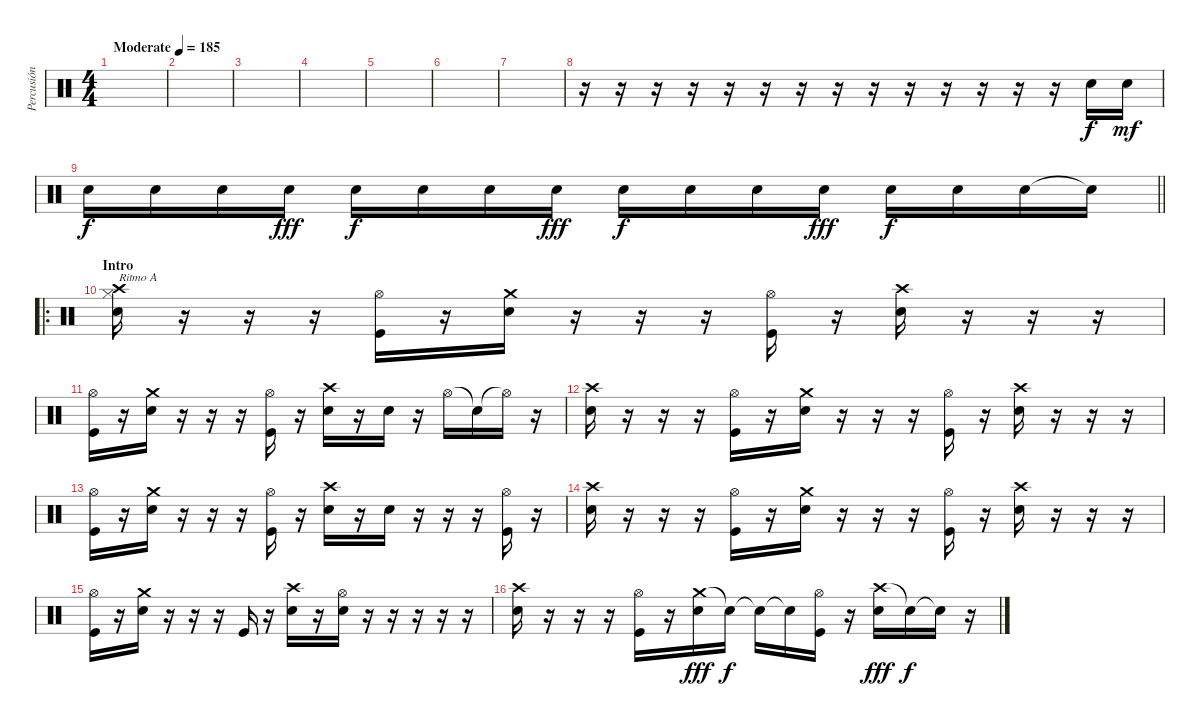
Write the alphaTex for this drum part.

\track ("Percusión" "Percusión") {instrument percussion}
\staff {score}
\articulation defaults
\ts (4 4)
\tempo (185 "Moderate")
\clef neutral
\ks c
|
|
|
|
|
|
|
r.16 r.16 r.16 r.16 r.16 r.16 r.16 r.16 r.16 r.16 r.16 r.16 r.16 r.16 "Snare (hit) 2".16 "Snare (hit) 2".16{dy mf} |
\barLineRight lightlight "Electric Snare (hit)".16{dy f} "Electric Snare (hit)".16 "Electric Snare (hit)".16 "Electric Snare (hit)".16{dy fff} "Electric Snare (hit)".16{dy f} "Electric Snare (hit)".16 "Electric Snare (hit)".16 "Electric Snare (hit)".16{dy fff} "Electric Snare (hit)".16{dy f} "Electric Snare (hit)".16 "Electric Snare (hit)".16 "Electric Snare (hit)".16{dy fff} "Electric Snare (hit)".16{dy f} "Electric Snare (hit)".16 "Electric Snare (hit)".16 "Snare (hit) 2"{t}.16
|
\ro
\section ("" "Intro")
("Crash high (hit)" "Electric Snare (hit)" "Hi-Hat (closed)").16{txt "Ritmo A"} r.16 r.16 r.16 ("Hi-Hat (open)" "Kick (hit)").16 r.16 ("Crash medium (hit)" "Electric Snare (hit)").16 r.16 r.16 r.16 ("Hi-Hat (open)" "Kick (hit)").16 r.16 ("Crash high (hit)" "Electric Snare (hit)").16 r.16 r.16 r.16 |
("Hi-Hat (open)" "Kick (hit)").16 r.16 ("Crash medium (hit)" "Electric Snare (hit)").16 r.16 r.16 r.16 ("Hi-Hat (open)" "Kick (hit)").16 r.16 ("Crash high (hit)" "Electric Snare (hit)").16 r.16 "Electric Snare (hit)".16 r.16 "Hi-Hat (open)".16 "Snare (hit)"{t}.16 "Hi-Hat (open)"{t}.16 r.16 |
("Crash high (hit)" "Electric Snare (hit)").16 r.16 r.16 r.16 ("Hi-Hat (open)" "Kick (hit)").16 r.16 ("Crash medium (hit)" "Electric Snare (hit)").16 r.16 r.16 r.16 ("Hi-Hat (open)" "Kick (hit)").16 r.16 ("Crash high (hit)" "Electric Snare (hit)").16 r.16 r.16 r.16 |
("Hi-Hat (open)" "Kick (hit)").16 r.16 ("Crash medium (hit)" "Electric Snare (hit)").16 r.16 r.16 r.16 ("Hi-Hat (open)" "Kick (hit)").16 r.16 ("Crash high (hit)" "Electric Snare (hit)").16 r.16 "Electric Snare (hit)".16 r.16 r.16 r.16 ("Hi-Hat (open)" "Kick (hit)").16 r.16 |
("Crash high (hit)" "Electric Snare (hit)").16 r.16 r.16 r.16 ("Hi-Hat (open)" "Kick (hit)").16 r.16 ("Crash medium (hit)" "Electric Snare (hit)").16 r.16 r.16 r.16 ("Hi-Hat (open)" "Kick (hit)").16 r.16 ("Crash high (hit)" "Electric Snare (hit)").16 r.16 r.16 r.16 |
("Hi-Hat (open)" "Kick (hit)").16 r.16 ("Crash medium (hit)" "Electric Snare (hit)").16 r.16 r.16 r.16 "Kick (hit)".16 r.16 ("Crash high (hit)" "Electric Snare (hit)").16 r.16 ("Hi-Hat (open)" "Electric Snare (hit)").16 r.16 r.16 r.16 r.16 r.16 |
("Crash high (hit)" "Electric Snare (hit)").16 r.16 r.16 r.16 ("Hi-Hat (open)" "Kick (hit)").16 r.16 ("Crash medium (hit)" "Electric Snare (hit)").16{dy fff} "Snare (hit)"{t}.16{dy f} "Snare (hit)"{t}.16 "Snare (hit)"{t}.16 ("Hi-Hat (open)" "Kick (hit)").16 r.16 ("Crash high (hit)" "Electric Snare (hit)").16{dy fff} "Snare (hit)"{t}.16{dy f} "Snare (hit)"{t}.16 r.16
